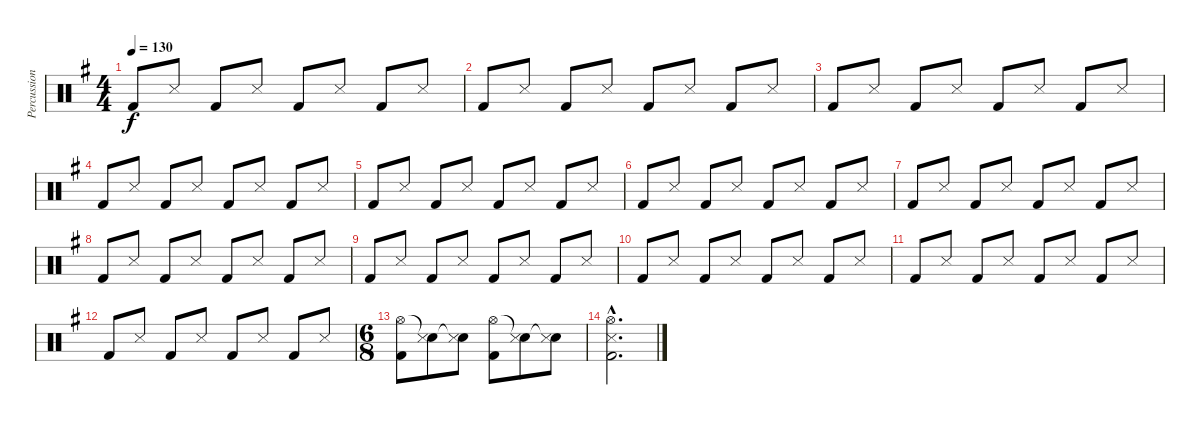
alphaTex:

\track ("Percussions" "Percussion") {instrument percussion}
\staff {score}
\articulation defaults
\ts (4 4)
\tempo 130
\clef neutral
\ks g "Kick (hit) 2".8{dy f} "Snare (side stick) 3".8 "Kick (hit) 2".8 "Snare (side stick) 3".8 "Kick (hit) 2".8 "Snare (side stick) 3".8 "Kick (hit) 2".8 "Snare (side stick) 3".8
|
"Kick (hit) 2".8 "Snare (side stick) 3".8 "Kick (hit) 2".8 "Snare (side stick) 3".8 "Kick (hit) 2".8 "Snare (side stick) 3".8 "Kick (hit) 2".8 "Snare (side stick) 3".8 |
"Kick (hit) 2".8 "Snare (side stick) 3".8 "Kick (hit) 2".8 "Snare (side stick) 3".8 "Kick (hit) 2".8 "Snare (side stick) 3".8 "Kick (hit) 2".8 "Snare (side stick) 3".8 |
"Kick (hit) 2".8 "Snare (side stick) 3".8 "Kick (hit) 2".8 "Snare (side stick) 3".8 "Kick (hit) 2".8 "Snare (side stick) 3".8 "Kick (hit) 2".8 "Snare (side stick) 3".8 |
"Kick (hit) 2".8 "Snare (side stick) 3".8 "Kick (hit) 2".8 "Snare (side stick) 3".8 "Kick (hit) 2".8 "Snare (side stick) 3".8 "Kick (hit) 2".8 "Snare (side stick) 3".8 |
"Kick (hit) 2".8 "Snare (side stick) 3".8 "Kick (hit) 2".8 "Snare (side stick) 3".8 "Kick (hit) 2".8 "Snare (side stick) 3".8 "Kick (hit) 2".8 "Snare (side stick) 3".8 |
"Kick (hit) 2".8 "Snare (side stick) 3".8 "Kick (hit) 2".8 "Snare (side stick) 3".8 "Kick (hit) 2".8 "Snare (side stick) 3".8 "Kick (hit) 2".8 "Snare (side stick) 3".8 |
"Kick (hit) 2".8 "Snare (side stick) 3".8 "Kick (hit) 2".8 "Snare (side stick) 3".8 "Kick (hit) 2".8 "Snare (side stick) 3".8 "Kick (hit) 2".8 "Snare (side stick) 3".8 |
"Kick (hit) 2".8 "Snare (side stick) 3".8 "Kick (hit) 2".8 "Snare (side stick) 3".8 "Kick (hit) 2".8 "Snare (side stick) 3".8 "Kick (hit) 2".8 "Snare (side stick) 3".8 |
"Kick (hit) 2".8 "Snare (side stick) 3".8 "Kick (hit) 2".8 "Snare (side stick) 3".8 "Kick (hit) 2".8 "Snare (side stick) 3".8 "Kick (hit) 2".8 "Snare (side stick) 3".8 |
"Kick (hit) 2".8 "Snare (side stick) 3".8 "Kick (hit) 2".8 "Snare (side stick) 3".8 "Kick (hit) 2".8 "Snare (side stick) 3".8 "Kick (hit) 2".8 "Snare (side stick) 3".8 |
"Kick (hit) 2".8 "Snare (side stick) 3".8 "Kick (hit) 2".8 "Snare (side stick) 3".8 "Kick (hit) 2".8 "Snare (side stick) 3".8 "Kick (hit) 2".8 "Snare (side stick) 3".8 |
\ts (6 8)
("Hi-Hat (open)" "Kick (hit) 2").8 ("Snare (hit)"{t} "Snare (side stick) 3").8 ("Snare (hit)"{t} "Snare (side stick) 3").8 ("Hi-Hat (open)" "Kick (hit) 2").8 ("Snare (hit)"{t} "Snare (side stick) 3").8 ("Snare (hit)"{t} "Snare (side stick) 3").8 |
("Hi-Hat (open)"{hac} "Snare (side stick) 3"{hac} "Kick (hit) 2"{hac}).2{d}
